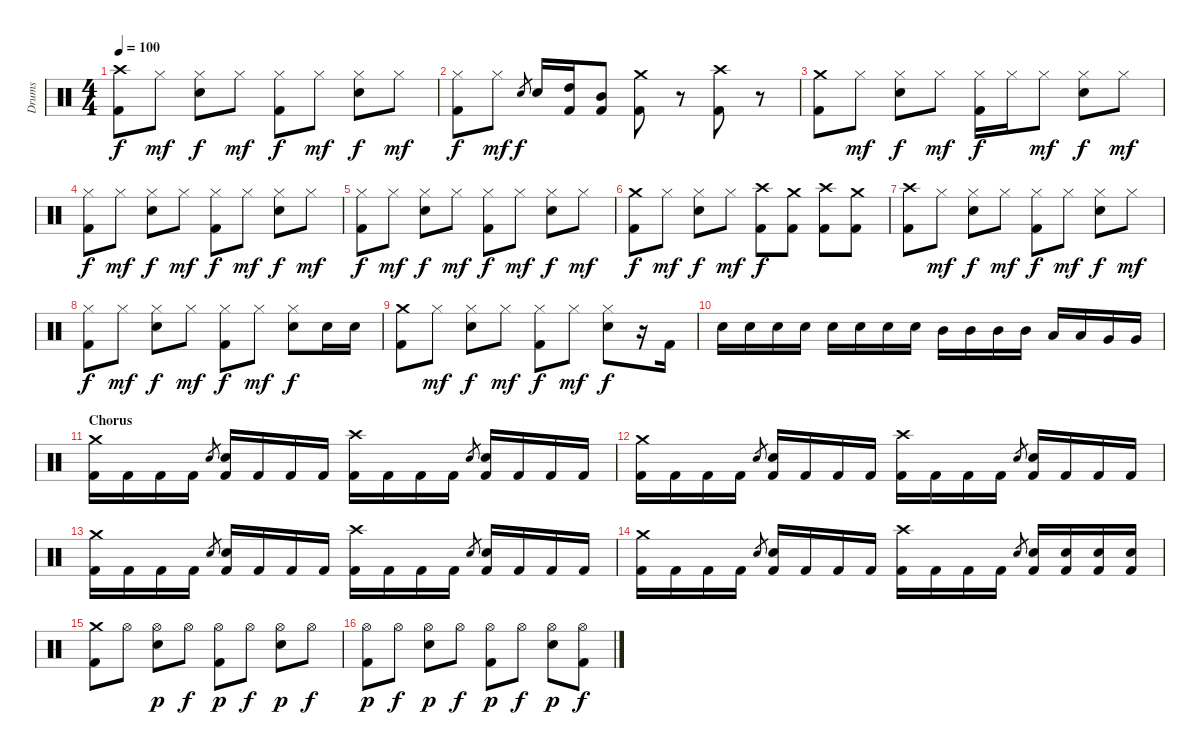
\track ("Drums" "Drums") {instrument percussion}
\staff {score}
\articulation defaults
\ts (4 4)
\tempo 100
\clef neutral
\ks c
("Crash high (hit)" "Kick (hit) 2").8{dy f} "Hi-Hat (closed)".8{dy mf} ("Hi-Hat (closed)" "Snare (hit) 2").8{dy f} "Hi-Hat (closed)".8{dy mf} ("Hi-Hat (closed)" "Kick (hit) 2").8{dy f} "Hi-Hat (closed)".8{dy mf} ("Hi-Hat (closed)" "Snare (hit) 2").8{dy f} "Hi-Hat (closed)".8{dy mf} |
("Hi-Hat (closed)" "Kick (hit) 2").8{dy f} "Hi-Hat (closed)".8{dy mf} "Snare (hit) 2".8{gr dy f} "Snare (hit) 2".16 ("High Tom (hit)" "Kick (hit) 2").16 ("Mid Tom (hit)" "Kick (hit) 2").8 ("Crash medium (hit)" "Kick (hit) 2").8 r.8 ("Crash high (hit)" "Kick (hit) 2").8 r.8 |
("Crash medium (hit)" "Kick (hit) 2").8 "Hi-Hat (closed)".8{dy mf} ("Hi-Hat (closed)" "Snare (hit) 2").8{dy f} "Hi-Hat (closed)".8{dy mf} ("Hi-Hat (closed)" "Kick (hit) 2").16{dy f} "Hi-Hat (closed)".16 "Hi-Hat (closed)".8{dy mf} ("Hi-Hat (closed)" "Snare (hit) 2").8{dy f} "Hi-Hat (closed)".8{dy mf} |
("Hi-Hat (closed)" "Kick (hit) 2").8{dy f} "Hi-Hat (closed)".8{dy mf} ("Hi-Hat (closed)" "Snare (hit) 2").8{dy f} "Hi-Hat (closed)".8{dy mf} ("Hi-Hat (closed)" "Kick (hit) 2").8{dy f} "Hi-Hat (closed)".8{dy mf} ("Hi-Hat (closed)" "Snare (hit) 2").8{dy f} "Hi-Hat (closed)".8{dy mf} |
("Hi-Hat (closed)" "Kick (hit) 2").8{dy f} "Hi-Hat (closed)".8{dy mf} ("Hi-Hat (closed)" "Snare (hit) 2").8{dy f} "Hi-Hat (closed)".8{dy mf} ("Hi-Hat (closed)" "Kick (hit) 2").8{dy f} "Hi-Hat (closed)".8{dy mf} ("Hi-Hat (closed)" "Snare (hit) 2").8{dy f} "Hi-Hat (closed)".8{dy mf} |
("Crash medium (hit)" "Kick (hit) 2").8{dy f} "Hi-Hat (closed)".8{dy mf} ("Hi-Hat (closed)" "Snare (hit) 2").8{dy f} "Hi-Hat (closed)".8{dy mf} ("Crash high (hit)" "Kick (hit) 2").8{dy f} ("Crash medium (hit)" "Kick (hit) 2").8 ("Crash high (hit)" "Kick (hit) 2").8 ("Crash medium (hit)" "Kick (hit) 2").8 |
("Crash high (hit)" "Kick (hit) 2").8 "Hi-Hat (closed)".8{dy mf} ("Hi-Hat (closed)" "Snare (hit) 2").8{dy f} "Hi-Hat (closed)".8{dy mf} ("Hi-Hat (closed)" "Kick (hit) 2").8{dy f} "Hi-Hat (closed)".8{dy mf} ("Hi-Hat (closed)" "Snare (hit) 2").8{dy f} "Hi-Hat (closed)".8{dy mf} |
("Hi-Hat (closed)" "Kick (hit) 2").8{dy f} "Hi-Hat (closed)".8{dy mf} ("Hi-Hat (closed)" "Snare (hit) 2").8{dy f} "Hi-Hat (closed)".8{dy mf} ("Hi-Hat (closed)" "Kick (hit) 2").8{dy f} "Hi-Hat (closed)".8{dy mf} ("Hi-Hat (closed)" "Snare (hit) 2").8{dy f} "Snare (hit) 2".16 "Snare (hit) 2".16 |
("Crash medium (hit)" "Kick (hit) 2").8 "Hi-Hat (closed)".8{dy mf} ("Hi-Hat (closed)" "Snare (hit) 2").8{dy f} "Hi-Hat (closed)".8{dy mf} ("Hi-Hat (closed)" "Kick (hit) 2").8{dy f} "Hi-Hat (closed)".8{dy mf} ("Hi-Hat (closed)" "Snare (hit) 2").8{dy f} r.16 "Kick (hit) 2".16 |
"Snare (hit) 2".16 "Snare (hit) 2".16 "Snare (hit) 2".16 "Snare (hit) 2".16 "Snare (hit) 2".16 "Snare (hit) 2".16 "Snare (hit) 2".16 "Snare (hit) 2".16 "Mid Tom (hit)".16 "Mid Tom (hit)".16 "Mid Tom (hit)".16 "Mid Tom (hit)".16 "Low Tom (hit)".16 "Low Tom (hit)".16 "Very Low Tom (hit)".16 "Very Low Tom (hit)".16 |
\section ("" "Chorus")
("Crash medium (hit)" "Kick (hit) 2").16 "Kick (hit) 2".16 "Kick (hit) 2".16 "Kick (hit) 2".16 "Snare (hit) 2".8{gr} ("Snare (hit) 2" "Kick (hit) 2").16 "Kick (hit) 2".16 "Kick (hit) 2".16 "Kick (hit) 2".16 ("Crash high (hit)" "Kick (hit) 2").16 "Kick (hit) 2".16 "Kick (hit) 2".16 "Kick (hit) 2".16 "Snare (hit) 2".8{gr} ("Snare (hit) 2" "Kick (hit) 2").16 "Kick (hit) 2".16 "Kick (hit) 2".16 "Kick (hit) 2".16 |
("Crash medium (hit)" "Kick (hit) 2").16 "Kick (hit) 2".16 "Kick (hit) 2".16 "Kick (hit) 2".16 "Snare (hit) 2".8{gr} ("Snare (hit) 2" "Kick (hit) 2").16 "Kick (hit) 2".16 "Kick (hit) 2".16 "Kick (hit) 2".16 ("Crash high (hit)" "Kick (hit) 2").16 "Kick (hit) 2".16 "Kick (hit) 2".16 "Kick (hit) 2".16 "Snare (hit) 2".8{gr} ("Snare (hit) 2" "Kick (hit) 2").16 "Kick (hit) 2".16 "Kick (hit) 2".16 "Kick (hit) 2".16 |
("Crash medium (hit)" "Kick (hit) 2").16 "Kick (hit) 2".16 "Kick (hit) 2".16 "Kick (hit) 2".16 "Snare (hit) 2".8{gr} ("Snare (hit) 2" "Kick (hit) 2").16 "Kick (hit) 2".16 "Kick (hit) 2".16 "Kick (hit) 2".16 ("Crash high (hit)" "Kick (hit) 2").16 "Kick (hit) 2".16 "Kick (hit) 2".16 "Kick (hit) 2".16 "Snare (hit) 2".8{gr} ("Snare (hit) 2" "Kick (hit) 2").16 "Kick (hit) 2".16 "Kick (hit) 2".16 "Kick (hit) 2".16 |
("Crash medium (hit)" "Kick (hit) 2").16 "Kick (hit) 2".16 "Kick (hit) 2".16 "Kick (hit) 2".16 "Snare (hit) 2".8{gr} ("Snare (hit) 2" "Kick (hit) 2").16 "Kick (hit) 2".16 "Kick (hit) 2".16 "Kick (hit) 2".16 ("Crash high (hit)" "Kick (hit) 2").16 "Kick (hit) 2".16 "Kick (hit) 2".16 "Kick (hit) 2".16 "Snare (hit) 2".8{gr} ("Snare (hit) 2" "Kick (hit) 2").16 ("Snare (hit) 2" "Kick (hit) 2").16 ("Snare (hit) 2" "Kick (hit) 2").16 ("Snare (hit) 2" "Kick (hit) 2").16 |
("Crash medium (hit)" "Kick (hit) 2").8 "Hi-Hat (open)".8 ("Hi-Hat (open)" "Snare (hit) 2").8{dy p} "Hi-Hat (open)".8{dy f} ("Hi-Hat (open)" "Kick (hit) 2").8{dy p} "Hi-Hat (open)".8{dy f} ("Hi-Hat (open)" "Snare (hit) 2").8{dy p} "Hi-Hat (open)".8{dy f} |
("Hi-Hat (open)" "Kick (hit) 2").8{dy p} "Hi-Hat (open)".8{dy f} ("Hi-Hat (open)" "Snare (hit) 2").8{dy p} "Hi-Hat (open)".8{dy f} ("Hi-Hat (open)" "Kick (hit) 2").8{dy p} "Hi-Hat (open)".8{dy f} ("Hi-Hat (open)" "Snare (hit) 2").8{dy p} ("Hi-Hat (open)" "Kick (hit) 2").8{dy f}
